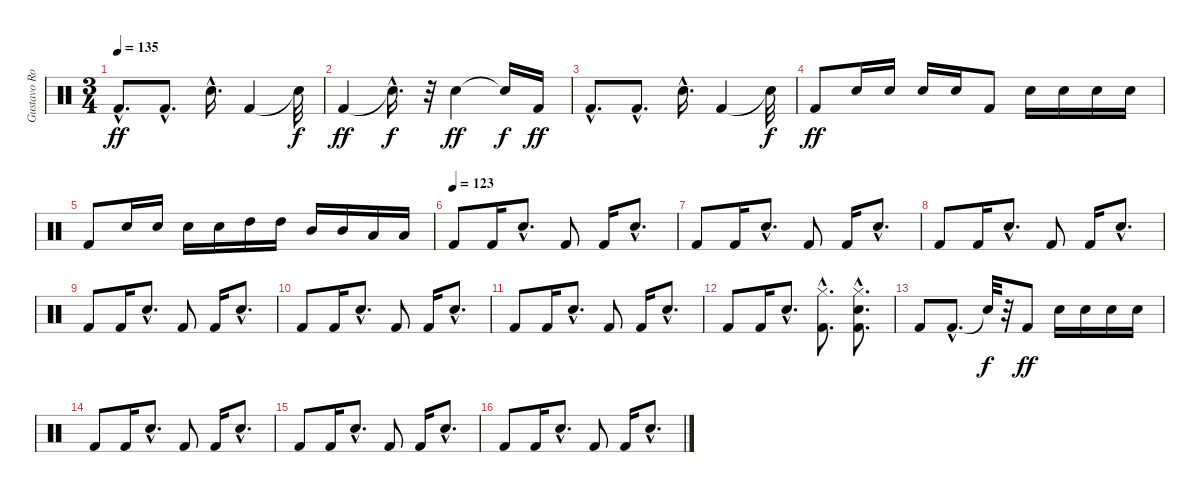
\track ("Gustavo Rowek 2" "Gustavo Ro") {instrument percussion}
\staff {score}
\articulation defaults
\ts (3 4)
\tempo 135
\clef neutral
\ks c "Kick (hit) 2"{hac}.8{d dy ff} "Kick (hit) 2"{hac}.8{d} "Snare (hit) 2"{hac}.16{d} "Kick (hit) 2".4 "Snare (hit)"{t}.32{dy f}
|
"Kick (hit) 2".4{dy ff} "Snare (hit)"{hac t}.16{d dy f} r.32 "Snare (hit) 2".4{dy ff} "Snare (hit)"{t}.16{dy f} "Kick (hit) 2".16{dy ff} |
"Kick (hit) 2"{hac}.8{d} "Kick (hit) 2"{hac}.8{d} "Snare (hit) 2"{hac}.16{d} "Kick (hit) 2".4 "Snare (hit)"{t}.32{dy f} |
"Kick (hit) 2".8{dy ff} "Electric Snare (hit)".16 "Electric Snare (hit)".16 "Electric Snare (hit)".16 "Electric Snare (hit)".16 "Kick (hit) 2".8 "Electric Snare (hit)".16 "Electric Snare (hit)".16 "Electric Snare (hit)".16 "Electric Snare (hit)".16 |
"Kick (hit) 2".8 "Electric Snare (hit)".16 "Electric Snare (hit)".16 "Electric Snare (hit)".16 "Electric Snare (hit)".16 "High Tom (hit)".16 "High Tom (hit)".16 "Mid Tom (hit)".16 "Mid Tom (hit)".16 "Low Tom (hit)".16 "Low Tom (hit)".16 |
\tempo (123)
"Kick (hit) 2".8 "Kick (hit) 2".16 "Snare (hit) 2"{hac}.8{d} "Kick (hit) 2".8 "Kick (hit) 2".16 "Snare (hit) 2"{hac}.8{d} |
"Kick (hit) 2".8 "Kick (hit) 2".16 "Snare (hit) 2"{hac}.8{d} "Kick (hit) 2".8 "Kick (hit) 2".16 "Snare (hit) 2"{hac}.8{d} |
"Kick (hit) 2".8 "Kick (hit) 2".16 "Snare (hit) 2"{hac}.8{d} "Kick (hit) 2".8 "Kick (hit) 2".16 "Snare (hit) 2"{hac}.8{d} |
"Kick (hit) 2".8 "Kick (hit) 2".16 "Snare (hit) 2"{hac}.8{d} "Kick (hit) 2".8 "Kick (hit) 2".16 "Snare (hit) 2"{hac}.8{d} |
"Kick (hit) 2".8 "Kick (hit) 2".16 "Snare (hit) 2"{hac}.8{d} "Kick (hit) 2".8 "Kick (hit) 2".16 "Snare (hit) 2"{hac}.8{d} |
"Kick (hit) 2".8 "Kick (hit) 2".16 "Snare (hit) 2"{hac}.8{d} "Kick (hit) 2".8 "Kick (hit) 2".16 "Snare (hit) 2"{hac}.8{d} |
"Kick (hit) 2".8 "Kick (hit) 2".16 "Snare (hit) 2"{hac}.8{d} ("Kick (hit) 2"{hac} "Hi-Hat (closed)"{hac}).8{d} ("Kick (hit) 2"{hac} "Snare (hit) 2"{hac} "Hi-Hat (closed)"{hac}).8{d} |
"Kick (hit) 2".8 "Kick (hit) 2"{hac}.8{d} "Snare (hit)"{t}.32{dy f} r.32 "Kick (hit) 2".8{dy ff} "Electric Snare (hit)".16 "Electric Snare (hit)".16 "Electric Snare (hit)".16 "Electric Snare (hit)".16 |
"Kick (hit) 2".8 "Kick (hit) 2".16 "Snare (hit) 2"{hac}.8{d} "Kick (hit) 2".8 "Kick (hit) 2".16 "Snare (hit) 2"{hac}.8{d} |
"Kick (hit) 2".8 "Kick (hit) 2".16 "Snare (hit) 2"{hac}.8{d} "Kick (hit) 2".8 "Kick (hit) 2".16 "Snare (hit) 2"{hac}.8{d} |
"Kick (hit) 2".8 "Kick (hit) 2".16 "Snare (hit) 2"{hac}.8{d} "Kick (hit) 2".8 "Kick (hit) 2".16 "Snare (hit) 2"{hac}.8{d}
